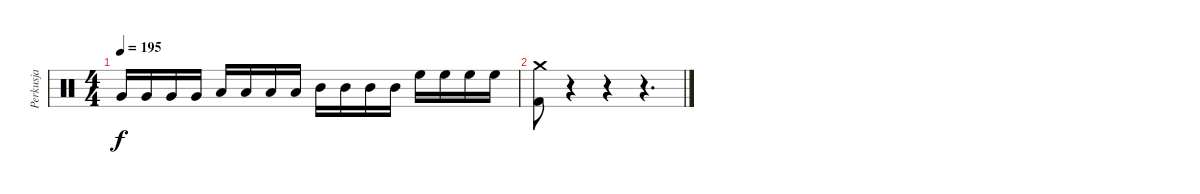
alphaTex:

\track ("Perkusja" "Perkusja") {instrument percussion}
\staff {score}
\articulation defaults
\ts (4 4)
\tempo 195
\clef neutral
\ks c "Very Low Tom (hit)".16{dy f} "Very Low Tom (hit)".16 "Very Low Tom (hit)".16 "Very Low Tom (hit)".16 "Low Tom (hit)".16 "Low Tom (hit)".16 "Low Tom (hit)".16 "Low Tom (hit)".16 "Mid Tom (hit)".16 "Mid Tom (hit)".16 "Mid Tom (hit)".16 "Mid Tom (hit)".16 "High Floor Tom (hit)".16 "High Floor Tom (hit)".16 "High Floor Tom (hit)".16 "High Floor Tom (hit)".16
|
("Crash medium (hit)" "Kick (hit) 2").8 r.4 r.4 r.4{d}
